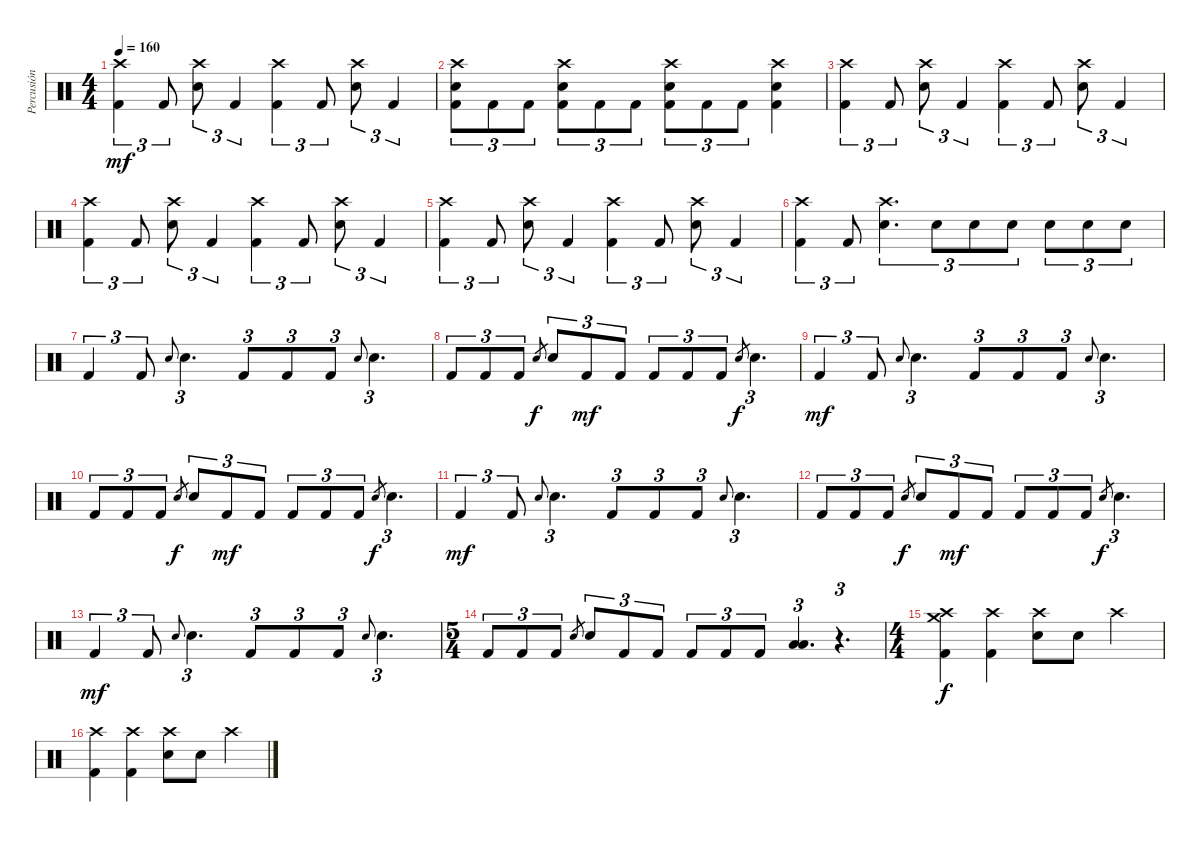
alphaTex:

\track ("Percusión" "Percusión") {instrument percussion}
\staff {score}
\articulation defaults
\ts (4 4)
\tempo 160
\clef neutral
\ks c
("Crash high (hit)" "Kick (hit) 2").4{tu (3 2) dy mf} "Kick (hit) 2".8{tu (3 2)} ("Electric Snare (hit)" "Crash high (hit)").8{tu (3 2)} "Kick (hit) 2".4{tu (3 2)} ("Crash high (hit)" "Kick (hit) 2").4{tu (3 2)} "Kick (hit) 2".8{tu (3 2)} ("Electric Snare (hit)" "Crash high (hit)").8{tu (3 2)} "Kick (hit) 2".4{tu (3 2)} |
("Electric Snare (hit)" "Crash high (hit)" "Kick (hit) 2").8{tu (3 2)} "Kick (hit) 2".8{tu (3 2)} "Kick (hit) 2".8{tu (3 2)} ("Electric Snare (hit)" "Crash high (hit)" "Kick (hit) 2").8{tu (3 2)} "Kick (hit) 2".8{tu (3 2)} "Kick (hit) 2".8{tu (3 2)} ("Electric Snare (hit)" "Crash high (hit)" "Kick (hit) 2").8{tu (3 2)} "Kick (hit) 2".8{tu (3 2)} "Kick (hit) 2".8{tu (3 2)} ("Electric Snare (hit)" "Crash high (hit)" "Kick (hit) 2").4 |
("Crash high (hit)" "Kick (hit) 2").4{tu (3 2)} "Kick (hit) 2".8{tu (3 2)} ("Electric Snare (hit)" "Crash high (hit)").8{tu (3 2)} "Kick (hit) 2".4{tu (3 2)} ("Crash high (hit)" "Kick (hit) 2").4{tu (3 2)} "Kick (hit) 2".8{tu (3 2)} ("Electric Snare (hit)" "Crash high (hit)").8{tu (3 2)} "Kick (hit) 2".4{tu (3 2)} |
("Crash high (hit)" "Kick (hit) 2").4{tu (3 2)} "Kick (hit) 2".8{tu (3 2)} ("Electric Snare (hit)" "Crash high (hit)").8{tu (3 2)} "Kick (hit) 2".4{tu (3 2)} ("Crash high (hit)" "Kick (hit) 2").4{tu (3 2)} "Kick (hit) 2".8{tu (3 2)} ("Electric Snare (hit)" "Crash high (hit)").8{tu (3 2)} "Kick (hit) 2".4{tu (3 2)} |
("Crash high (hit)" "Kick (hit) 2").4{tu (3 2)} "Kick (hit) 2".8{tu (3 2)} ("Electric Snare (hit)" "Crash high (hit)").8{tu (3 2)} "Kick (hit) 2".4{tu (3 2)} ("Crash high (hit)" "Kick (hit) 2").4{tu (3 2)} "Kick (hit) 2".8{tu (3 2)} ("Electric Snare (hit)" "Crash high (hit)").8{tu (3 2)} "Kick (hit) 2".4{tu (3 2)} |
("Crash high (hit)" "Kick (hit) 2").4{tu (3 2)} "Kick (hit) 2".8{tu (3 2)} ("Electric Snare (hit)" "Crash high (hit)").4{d tu (3 2)} "Electric Snare (hit)".8{tu (3 2)} "Electric Snare (hit)".8{tu (3 2)} "Electric Snare (hit)".8{tu (3 2)} "Electric Snare (hit)".8{tu (3 2)} "Electric Snare (hit)".8{tu (3 2)} "Electric Snare (hit)".8{tu (3 2)} |
"Kick (hit) 2".4{tu (3 2)} "Kick (hit) 2".8{tu (3 2)} "Electric Snare (hit)".8{gr onbeat} "Electric Snare (hit)".4{d tu (3 2)} "Kick (hit) 2".8{tu (3 2)} "Kick (hit) 2".8{tu (3 2)} "Kick (hit) 2".8{tu (3 2)} "Electric Snare (hit)".8{gr onbeat} "Electric Snare (hit)".4{d tu (3 2)} |
"Kick (hit) 2".8{tu (3 2)} "Kick (hit) 2".8{tu (3 2)} "Kick (hit) 2".8{tu (3 2)} "Electric Snare (hit)".8{gr dy f} "Electric Snare (hit)".8{tu (3 2)} "Kick (hit) 2".8{tu (3 2) dy mf} "Kick (hit) 2".8{tu (3 2)} "Kick (hit) 2".8{tu (3 2)} "Kick (hit) 2".8{tu (3 2)} "Kick (hit) 2".8{tu (3 2)} "Electric Snare (hit)".8{gr dy f} "Electric Snare (hit)".4{d tu (3 2)} |
"Kick (hit) 2".4{tu (3 2) dy mf} "Kick (hit) 2".8{tu (3 2)} "Electric Snare (hit)".8{gr onbeat} "Electric Snare (hit)".4{d tu (3 2)} "Kick (hit) 2".8{tu (3 2)} "Kick (hit) 2".8{tu (3 2)} "Kick (hit) 2".8{tu (3 2)} "Electric Snare (hit)".8{gr onbeat} "Electric Snare (hit)".4{d tu (3 2)} |
"Kick (hit) 2".8{tu (3 2)} "Kick (hit) 2".8{tu (3 2)} "Kick (hit) 2".8{tu (3 2)} "Electric Snare (hit)".8{gr dy f} "Electric Snare (hit)".8{tu (3 2)} "Kick (hit) 2".8{tu (3 2) dy mf} "Kick (hit) 2".8{tu (3 2)} "Kick (hit) 2".8{tu (3 2)} "Kick (hit) 2".8{tu (3 2)} "Kick (hit) 2".8{tu (3 2)} "Electric Snare (hit)".8{gr dy f} "Electric Snare (hit)".4{d tu (3 2)} |
"Kick (hit) 2".4{tu (3 2) dy mf} "Kick (hit) 2".8{tu (3 2)} "Electric Snare (hit)".8{gr onbeat} "Electric Snare (hit)".4{d tu (3 2)} "Kick (hit) 2".8{tu (3 2)} "Kick (hit) 2".8{tu (3 2)} "Kick (hit) 2".8{tu (3 2)} "Electric Snare (hit)".8{gr onbeat} "Electric Snare (hit)".4{d tu (3 2)} |
"Kick (hit) 2".8{tu (3 2)} "Kick (hit) 2".8{tu (3 2)} "Kick (hit) 2".8{tu (3 2)} "Electric Snare (hit)".8{gr dy f} "Electric Snare (hit)".8{tu (3 2)} "Kick (hit) 2".8{tu (3 2) dy mf} "Kick (hit) 2".8{tu (3 2)} "Kick (hit) 2".8{tu (3 2)} "Kick (hit) 2".8{tu (3 2)} "Kick (hit) 2".8{tu (3 2)} "Electric Snare (hit)".8{gr dy f} "Electric Snare (hit)".4{d tu (3 2)} |
"Kick (hit) 2".4{tu (3 2) dy mf} "Kick (hit) 2".8{tu (3 2)} "Electric Snare (hit)".8{gr onbeat} "Electric Snare (hit)".4{d tu (3 2)} "Kick (hit) 2".8{tu (3 2)} "Kick (hit) 2".8{tu (3 2)} "Kick (hit) 2".8{tu (3 2)} "Electric Snare (hit)".8{gr onbeat} "Electric Snare (hit)".4{d tu (3 2)} |
\ts (5 4)
"Kick (hit) 2".8{tu (3 2)} "Kick (hit) 2".8{tu (3 2)} "Kick (hit) 2".8{tu (3 2)} "Electric Snare (hit)".8{gr} "Electric Snare (hit)".8{tu (3 2)} "Kick (hit) 2".8{tu (3 2)} "Kick (hit) 2".8{tu (3 2)} "Kick (hit) 2".8{tu (3 2)} "Kick (hit) 2".8{tu (3 2)} "Kick (hit) 2".8{tu (3 2)} ("Low Tom (hit)" "Low Floor Tom (hit)").4{d tu (3 2)} r.4{d tu (3 2)} |
\ts (4 4)
("Crash medium (hit)" "Crash high (hit)" "Kick (hit) 2").4{dy f} ("Crash high (hit)" "Kick (hit) 2").4 ("Electric Snare (hit)" "Crash high (hit)").8 "Electric Snare (hit)".8 "Crash high (hit)".4 |
("Crash high (hit)" "Kick (hit) 2").4 ("Crash high (hit)" "Kick (hit) 2").4 ("Electric Snare (hit)" "Crash high (hit)").8 "Electric Snare (hit)".8 "Crash high (hit)".4
